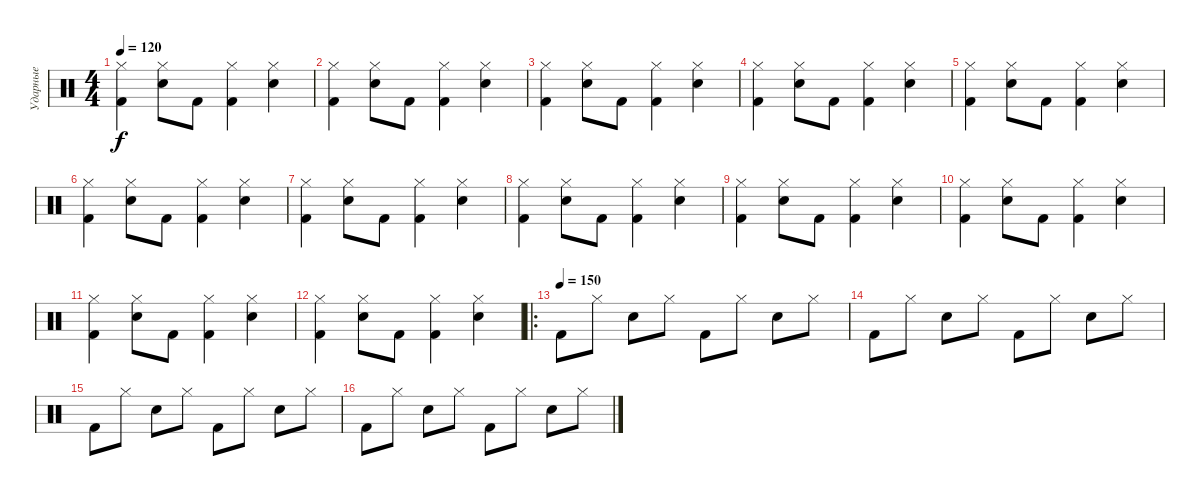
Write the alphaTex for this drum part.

\track ("Ударные" "Ударные") {instrument percussion}
\staff {score}
\articulation defaults
\ts (4 4)
\tempo 120
\clef neutral
\ks aminor
("Hi-Hat (closed)" "Kick (hit) 2").4{dy f} ("Hi-Hat (closed)" "Electric Snare (hit)").8 "Kick (hit) 2".8 ("Hi-Hat (closed)" "Kick (hit) 2").4 ("Hi-Hat (closed)" "Electric Snare (hit)").4 |
("Hi-Hat (closed)" "Kick (hit) 2").4 ("Hi-Hat (closed)" "Electric Snare (hit)").8 "Kick (hit) 2".8 ("Hi-Hat (closed)" "Kick (hit) 2").4 ("Hi-Hat (closed)" "Electric Snare (hit)").4 |
("Hi-Hat (closed)" "Kick (hit) 2").4 ("Hi-Hat (closed)" "Electric Snare (hit)").8 "Kick (hit) 2".8 ("Hi-Hat (closed)" "Kick (hit) 2").4 ("Hi-Hat (closed)" "Electric Snare (hit)").4 |
("Hi-Hat (closed)" "Kick (hit) 2").4 ("Hi-Hat (closed)" "Electric Snare (hit)").8 "Kick (hit) 2".8 ("Hi-Hat (closed)" "Kick (hit) 2").4 ("Hi-Hat (closed)" "Electric Snare (hit)").4 |
("Hi-Hat (closed)" "Kick (hit) 2").4 ("Hi-Hat (closed)" "Electric Snare (hit)").8 "Kick (hit) 2".8 ("Hi-Hat (closed)" "Kick (hit) 2").4 ("Hi-Hat (closed)" "Electric Snare (hit)").4 |
("Hi-Hat (closed)" "Kick (hit) 2").4 ("Hi-Hat (closed)" "Electric Snare (hit)").8 "Kick (hit) 2".8 ("Hi-Hat (closed)" "Kick (hit) 2").4 ("Hi-Hat (closed)" "Electric Snare (hit)").4 |
("Hi-Hat (closed)" "Kick (hit) 2").4 ("Hi-Hat (closed)" "Electric Snare (hit)").8 "Kick (hit) 2".8 ("Hi-Hat (closed)" "Kick (hit) 2").4 ("Hi-Hat (closed)" "Electric Snare (hit)").4 |
("Hi-Hat (closed)" "Kick (hit) 2").4 ("Hi-Hat (closed)" "Electric Snare (hit)").8 "Kick (hit) 2".8 ("Hi-Hat (closed)" "Kick (hit) 2").4 ("Hi-Hat (closed)" "Electric Snare (hit)").4 |
("Hi-Hat (closed)" "Kick (hit) 2").4 ("Hi-Hat (closed)" "Electric Snare (hit)").8 "Kick (hit) 2".8 ("Hi-Hat (closed)" "Kick (hit) 2").4 ("Hi-Hat (closed)" "Electric Snare (hit)").4 |
("Hi-Hat (closed)" "Kick (hit) 2").4 ("Hi-Hat (closed)" "Electric Snare (hit)").8 "Kick (hit) 2".8 ("Hi-Hat (closed)" "Kick (hit) 2").4 ("Hi-Hat (closed)" "Electric Snare (hit)").4 |
("Hi-Hat (closed)" "Kick (hit) 2").4 ("Hi-Hat (closed)" "Electric Snare (hit)").8 "Kick (hit) 2".8 ("Hi-Hat (closed)" "Kick (hit) 2").4 ("Hi-Hat (closed)" "Electric Snare (hit)").4 |
("Hi-Hat (closed)" "Kick (hit) 2").4 ("Hi-Hat (closed)" "Electric Snare (hit)").8 "Kick (hit) 2".8 ("Hi-Hat (closed)" "Kick (hit) 2").4 ("Hi-Hat (closed)" "Electric Snare (hit)").4 |
\ro
\tempo 150
\ks c "Kick (hit) 2".8 "Hi-Hat (closed)".8 "Electric Snare (hit)".8 "Hi-Hat (closed)".8 "Kick (hit) 2".8 "Hi-Hat (closed)".8 "Electric Snare (hit)".8 "Hi-Hat (closed)".8
|
"Kick (hit) 2".8 "Hi-Hat (closed)".8 "Electric Snare (hit)".8 "Hi-Hat (closed)".8 "Kick (hit) 2".8 "Hi-Hat (closed)".8 "Electric Snare (hit)".8 "Hi-Hat (closed)".8 |
"Kick (hit) 2".8 "Hi-Hat (closed)".8 "Electric Snare (hit)".8 "Hi-Hat (closed)".8 "Kick (hit) 2".8 "Hi-Hat (closed)".8 "Electric Snare (hit)".8 "Hi-Hat (closed)".8 |
"Kick (hit) 2".8 "Hi-Hat (closed)".8 "Electric Snare (hit)".8 "Hi-Hat (closed)".8 "Kick (hit) 2".8 "Hi-Hat (closed)".8 "Electric Snare (hit)".8 "Hi-Hat (closed)".8
